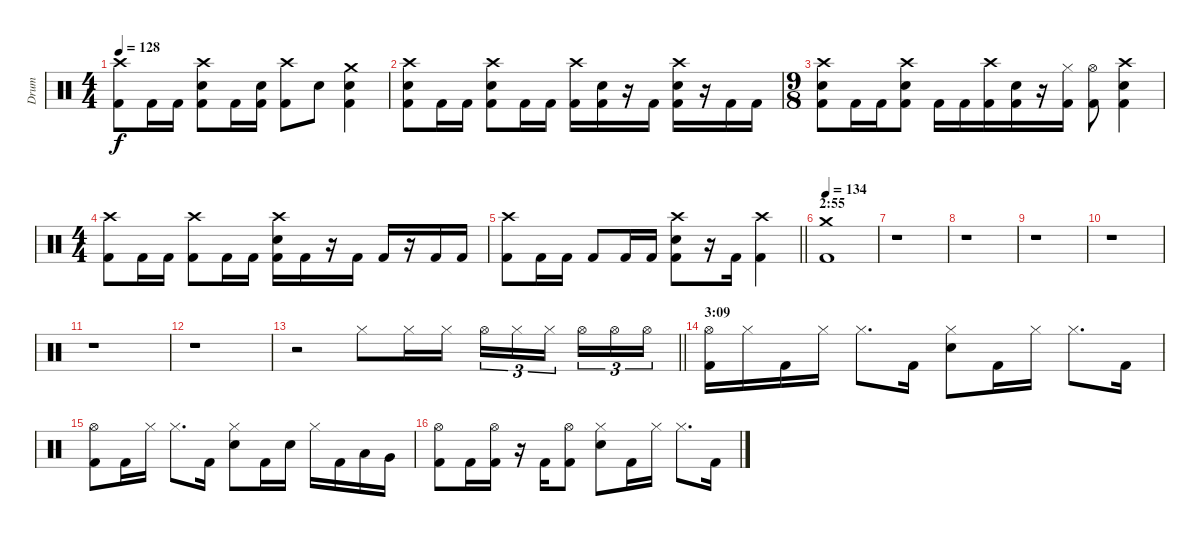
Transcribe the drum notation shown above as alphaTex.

\track ("Drum" "Drum") {instrument percussion}
\staff {score}
\articulation defaults
\ts (4 4)
\tempo 128
\clef neutral
\ks c
("Crash high (hit)" "Kick (hit) 2").8{dy f} "Kick (hit) 2".16 "Kick (hit) 2".16 ("Crash high (hit)" "Electric Snare (hit)" "Kick (hit) 2").8 "Kick (hit) 2".16 ("Electric Snare (hit)" "Kick (hit) 2").16 ("Crash high (hit)" "Kick (hit) 2").8 "Electric Snare (hit)".8 ("Crash medium (hit)" "Electric Snare (hit)" "Kick (hit) 2").4 |
("Crash high (hit)" "Electric Snare (hit)" "Kick (hit) 2").8 "Kick (hit) 2".16 "Kick (hit) 2".16 ("Crash high (hit)" "Electric Snare (hit)" "Kick (hit) 2").8 "Kick (hit) 2".16 "Kick (hit) 2".16 ("Crash high (hit)" "Kick (hit) 2").16 ("Electric Snare (hit)" "Kick (hit) 2").16 r.16 "Kick (hit) 2".16 ("Crash high (hit)" "Electric Snare (hit)" "Kick (hit) 2").16 r.16 "Kick (hit) 2".16 "Kick (hit) 2".16 |
\ts (9 8)
("Crash high (hit)" "Electric Snare (hit)" "Kick (hit) 2").8 "Kick (hit) 2".16 "Kick (hit) 2".16 ("Crash high (hit)" "Electric Snare (hit)" "Kick (hit) 2").8 "Kick (hit) 2".16 "Kick (hit) 2".16 ("Crash high (hit)" "Kick (hit) 2").16 ("Electric Snare (hit)" "Kick (hit) 2").16 r.16 ("Hi-Hat (closed)" "Kick (hit) 2").16 ("Hi-Hat (open)" "Kick (hit) 2").8 ("Crash high (hit)" "Electric Snare (hit)" "Kick (hit) 2").4 |
\ts (4 4)
("Crash high (hit)" "Kick (hit) 2").8 "Kick (hit) 2".16 "Kick (hit) 2".16 ("Crash high (hit)" "Kick (hit) 2").8 "Kick (hit) 2".16 "Kick (hit) 2".16 ("Crash high (hit)" "Electric Snare (hit)" "Kick (hit) 2").16 "Kick (hit) 2".16 r.16 "Kick (hit) 2".16 "Kick (hit) 2".16 r.16 "Kick (hit) 2".16 "Kick (hit) 2".16 |
\barLineRight lightlight
("Crash high (hit)" "Kick (hit) 2").8 "Kick (hit) 2".16 "Kick (hit) 2".16 "Kick (hit) 2".8 "Kick (hit) 2".16 "Kick (hit) 2".16 ("Crash high (hit)" "Electric Snare (hit)" "Kick (hit) 2").8 r.16 "Kick (hit) 2".16 ("Crash high (hit)" "Kick (hit) 2").4 |
\section ("" "2:55")
\tempo 134
("Crash medium (hit)" "Kick (hit) 2").1 |
r.1 |
r.1 |
r.1 |
r.1 |
r.1 |
r.1 |
\barLineRight lightlight
r.2 "Hi-Hat (closed)".8{volume 8} "Hi-Hat (closed)".16 "Hi-Hat (closed)".16 "Hi-Hat (open)".16{tu (3 2)} "Hi-Hat (closed)".16{tu (3 2)} "Hi-Hat (closed)".16{tu (3 2)} "Hi-Hat (open)".16{tu (3 2)} "Hi-Hat (open)".16{tu (3 2)} "Hi-Hat (open)".16{tu (3 2)} |
\section ("" "3:09")
("Hi-Hat (open)" "Kick (hit) 2").16 "Hi-Hat (closed)".16 "Kick (hit) 2".16 "Hi-Hat (closed)".16 "Hi-Hat (closed)".8{d} "Kick (hit) 2".16 ("Hi-Hat (closed)" "Electric Snare (hit)").8 "Kick (hit) 2".16 "Hi-Hat (closed)".16 "Hi-Hat (closed)".8{d} "Kick (hit) 2".16 |
("Hi-Hat (open)" "Kick (hit) 2").8 "Kick (hit) 2".16 "Hi-Hat (closed)".16 "Hi-Hat (closed)".8{d} "Kick (hit) 2".16 ("Hi-Hat (closed)" "Electric Snare (hit)").8 "Kick (hit) 2".16 "Electric Snare (hit)".16 "Hi-Hat (closed)".16 "Kick (hit) 2".16 "Low Tom (hit)".16 "Very Low Tom (hit)".16 |
("Hi-Hat (open)" "Kick (hit) 2").8 "Kick (hit) 2".16 ("Hi-Hat (open)" "Kick (hit) 2").16 r.16 "Kick (hit) 2".16 ("Hi-Hat (open)" "Kick (hit) 2").8 ("Hi-Hat (closed)" "Electric Snare (hit)").8 "Kick (hit) 2".16 "Hi-Hat (closed)".16 "Hi-Hat (closed)".8{d} "Kick (hit) 2".16
